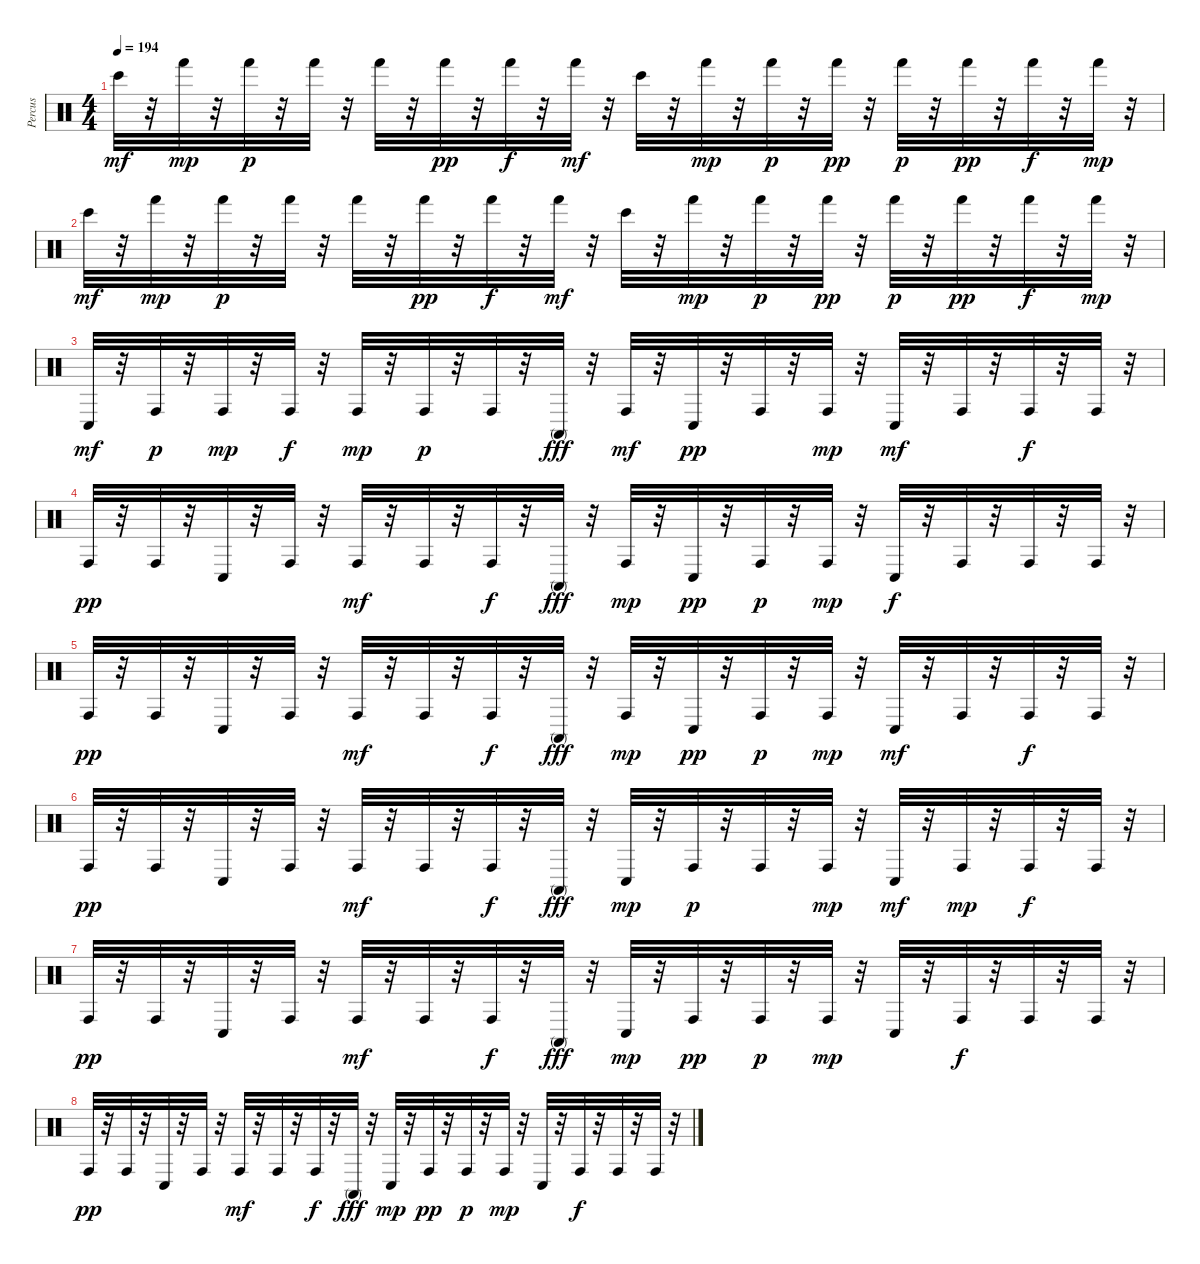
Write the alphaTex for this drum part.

\track ("Percus" "Percus") {instrument percussion}
\staff {score}
\articulation defaults
\ts (4 4)
\tempo 194
\clef neutral
\ks c "Bongo High (hit)".32{dy mf}
r.32 "Hand (hit)".32{dy mp} r.32 "Hand (hit)".32{dy p} r.32 "Hand (hit)".32 r.32 "Hand (hit)".32 r.32 "Hand (hit)".32{dy pp} r.32 "Hand (hit)".32{dy f} r.32 "Hand (hit)".32{dy mf} r.32 "Bongo High (hit)".32 r.32 "Hand (hit)".32{dy mp} r.32 "Hand (hit)".32{dy p} r.32 "Hand (hit)".32{dy pp} r.32 "Hand (hit)".32{dy p} r.32 "Hand (hit)".32{dy pp} r.32 "Hand (hit)".32{dy f} r.32 "Hand (hit)".32{dy mp} r.32 |
"Bongo High (hit)".32{dy mf} r.32 "Hand (hit)".32{dy mp} r.32 "Hand (hit)".32{dy p} r.32 "Hand (hit)".32 r.32 "Hand (hit)".32 r.32 "Hand (hit)".32{dy pp} r.32 "Hand (hit)".32{dy f} r.32 "Hand (hit)".32{dy mf} r.32 "Bongo High (hit)".32 r.32 "Hand (hit)".32{dy mp} r.32 "Hand (hit)".32{dy p} r.32 "Hand (hit)".32{dy pp} r.32 "Hand (hit)".32{dy p} r.32 "Hand (hit)".32{dy pp} r.32 "Hand (hit)".32{dy f} r.32 "Hand (hit)".32{dy mp} r.32 |
"Conga low (hit)".32{dy mf} r.32 "Conga high (hit)".32{dy p} r.32 "Conga high (hit)".32{dy mp} r.32 "Conga high (hit)".32{dy f} r.32 "Conga high (hit)".32{dy mp} r.32 "Conga high (hit)".32{dy p} r.32 "Conga high (hit)".32 r.32 "Conga high (mute)".32{dy fff} r.32 "Conga high (hit)".32{dy mf} r.32 "Conga low (hit)".32{dy pp} r.32 "Conga high (hit)".32 r.32 "Conga high (hit)".32{dy mp} r.32 "Conga low (hit)".32{dy mf} r.32 "Conga high (hit)".32 r.32 "Conga high (hit)".32{dy f} r.32 "Conga high (hit)".32 r.32 |
"Conga high (hit)".32{dy pp} r.32 "Conga high (hit)".32 r.32 "Conga low (hit)".32 r.32 "Conga high (hit)".32 r.32 "Conga high (hit)".32{dy mf} r.32 "Conga high (hit)".32 r.32 "Conga high (hit)".32{dy f} r.32 "Conga high (mute)".32{dy fff} r.32 "Conga high (hit)".32{dy mp} r.32 "Conga low (hit)".32{dy pp} r.32 "Conga high (hit)".32{dy p} r.32 "Conga high (hit)".32{dy mp} r.32 "Conga low (hit)".32{dy f} r.32 "Conga high (hit)".32 r.32 "Conga high (hit)".32 r.32 "Conga high (hit)".32 r.32 |
"Conga high (hit)".32{dy pp} r.32 "Conga high (hit)".32 r.32 "Conga low (hit)".32 r.32 "Conga high (hit)".32 r.32 "Conga high (hit)".32{dy mf} r.32 "Conga high (hit)".32 r.32 "Conga high (hit)".32{dy f} r.32 "Conga high (mute)".32{dy fff} r.32 "Conga high (hit)".32{dy mp} r.32 "Conga low (hit)".32{dy pp} r.32 "Conga high (hit)".32{dy p} r.32 "Conga high (hit)".32{dy mp} r.32 "Conga low (hit)".32{dy mf} r.32 "Conga high (hit)".32 r.32 "Conga high (hit)".32{dy f} r.32 "Conga high (hit)".32 r.32 |
"Conga high (hit)".32{dy pp} r.32 "Conga high (hit)".32 r.32 "Conga low (hit)".32 r.32 "Conga high (hit)".32 r.32 "Conga high (hit)".32{dy mf} r.32 "Conga high (hit)".32 r.32 "Conga high (hit)".32{dy f} r.32 "Conga high (mute)".32{dy fff} r.32 "Conga low (hit)".32{dy mp} r.32 "Conga high (hit)".32{dy p} r.32 "Conga high (hit)".32 r.32 "Conga high (hit)".32{dy mp} r.32 "Conga low (hit)".32{dy mf} r.32 "Conga high (hit)".32{dy mp} r.32 "Conga high (hit)".32{dy f} r.32 "Conga high (hit)".32 r.32 |
"Conga high (hit)".32{dy pp} r.32 "Conga high (hit)".32 r.32 "Conga low (hit)".32 r.32 "Conga high (hit)".32 r.32 "Conga high (hit)".32{dy mf} r.32 "Conga high (hit)".32 r.32 "Conga high (hit)".32{dy f} r.32 "Conga high (mute)".32{dy fff} r.32 "Conga low (hit)".32{dy mp} r.32 "Conga high (hit)".32{dy pp} r.32 "Conga high (hit)".32{dy p} r.32 "Conga high (hit)".32{dy mp} r.32 "Conga low (hit)".32 r.32 "Conga high (hit)".32{dy f} r.32 "Conga high (hit)".32 r.32 "Conga high (hit)".32 r.32 |
"Conga high (hit)".32{dy pp} r.32 "Conga high (hit)".32 r.32 "Conga low (hit)".32 r.32 "Conga high (hit)".32 r.32 "Conga high (hit)".32{dy mf} r.32 "Conga high (hit)".32 r.32 "Conga high (hit)".32{dy f} r.32 "Conga high (mute)".32{dy fff} r.32 "Conga low (hit)".32{dy mp} r.32 "Conga high (hit)".32{dy pp} r.32 "Conga high (hit)".32{dy p} r.32 "Conga high (hit)".32{dy mp} r.32 "Conga low (hit)".32 r.32 "Conga high (hit)".32{dy f} r.32 "Conga high (hit)".32 r.32 "Conga high (hit)".32 r.32
